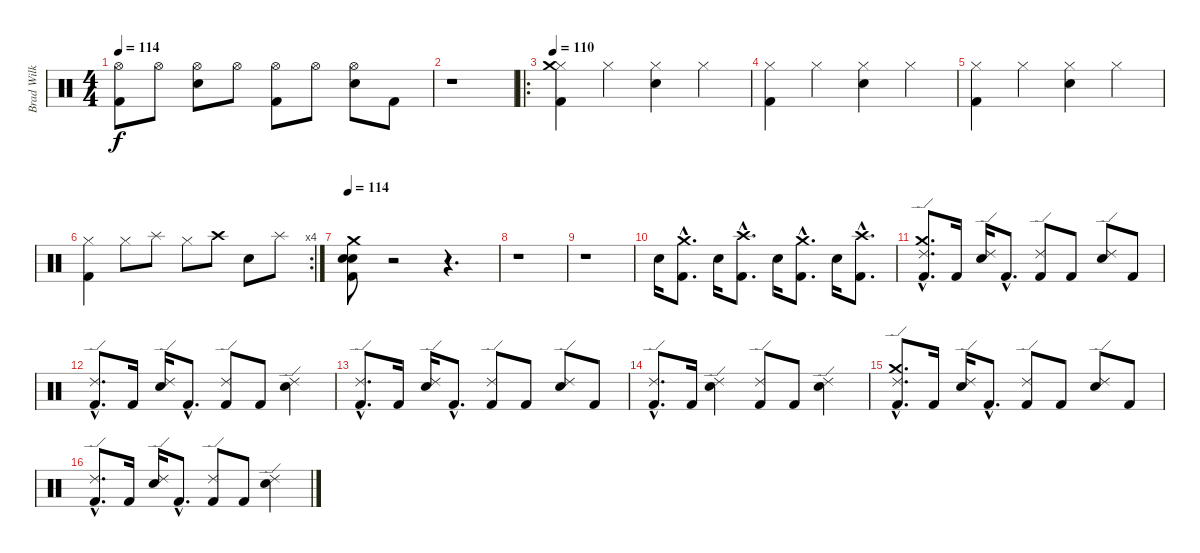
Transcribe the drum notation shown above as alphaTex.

\track ("Brad Wilk" "Brad Wilk") {instrument percussion}
\staff {score}
\articulation defaults
\ts (4 4)
\tempo 114
\clef neutral
\ks c
("Hi-Hat (open)" "Kick (hit) 2").8{dy f} "Hi-Hat (open)".8 ("Hi-Hat (open)" "Snare (hit) 2").8 "Hi-Hat (open)".8 ("Hi-Hat (open)" "Kick (hit) 2").8 "Hi-Hat (open)".8 ("Hi-Hat (open)" "Snare (hit) 2").8 "Kick (hit) 2".8 |
r.1 |
\ro
\tempo 110
("Hi-Hat (closed)" "Kick (hit) 2" "Crash medium (hit)").4 "Hi-Hat (closed)".4 ("Hi-Hat (closed)" "Snare (hit) 2").4 "Hi-Hat (closed)".4 |
("Hi-Hat (closed)" "Kick (hit) 2").4 "Hi-Hat (closed)".4 ("Hi-Hat (closed)" "Snare (hit) 2").4 "Hi-Hat (closed)".4 |
("Hi-Hat (closed)" "Kick (hit) 2").4 "Hi-Hat (closed)".4 ("Hi-Hat (closed)" "Snare (hit) 2").4 "Hi-Hat (closed)".4 |
\rc 4
("Hi-Hat (closed)" "Kick (hit) 2").4 "Hi-Hat (closed)".8 "Splash (hit)".8 "Hi-Hat (closed)".8 "Crash high (hit)".8 "Snare (hit) 2".8 "Splash (hit)".8 |
\tempo 114
("Crash medium (hit)" "Kick (hit) 2" "Snare (hit) 2" "Snare (hit) 2").8 r.2 r.4{d} |
r.1 |
r.1 |
"Snare (hit) 2".16 ("Kick (hit) 2"{hac} "Crash medium (hit)"{hac}).8{d} "Snare (hit) 2".16 ("Kick (hit) 2"{hac} "Crash high (hit)"{hac}).8{d} "Snare (hit) 2".16 ("Kick (hit) 2"{hac} "Crash medium (hit)"{hac}).8{d} "Snare (hit) 2".16 ("Kick (hit) 2"{hac} "Crash high (hit)"{hac}).8{d} |
("Ride (edge) 2"{hac} "Kick (hit) 2"{hac} "Crash medium (hit)"{hac}).8{d} "Kick (hit) 2".16 ("Ride (edge) 2" "Snare (hit) 2").16 "Kick (hit) 2"{hac}.8{d} ("Ride (edge) 2" "Kick (hit) 2").8 "Kick (hit) 2".8 ("Ride (edge) 2" "Snare (hit) 2").8 "Kick (hit) 2".8 |
("Ride (edge) 2"{hac} "Kick (hit) 2"{hac}).8{d} "Kick (hit) 2".16 ("Ride (edge) 2" "Snare (hit) 2").16 "Kick (hit) 2"{hac}.8{d} ("Ride (edge) 2" "Kick (hit) 2").8 "Kick (hit) 2".8 ("Ride (edge) 2" "Snare (hit) 2").4 |
("Ride (edge) 2"{hac} "Kick (hit) 2"{hac}).8{d} "Kick (hit) 2".16 ("Ride (edge) 2" "Snare (hit) 2").16 "Kick (hit) 2"{hac}.8{d} ("Ride (edge) 2" "Kick (hit) 2").8 "Kick (hit) 2".8 ("Ride (edge) 2" "Snare (hit) 2").8 "Kick (hit) 2".8 |
("Ride (edge) 2"{hac} "Kick (hit) 2"{hac}).8{d} "Kick (hit) 2".16 ("Ride (edge) 2" "Snare (hit) 2").4 ("Ride (edge) 2" "Kick (hit) 2").8 "Kick (hit) 2".8 ("Ride (edge) 2" "Snare (hit) 2").4 |
("Ride (edge) 2"{hac} "Kick (hit) 2"{hac} "Crash medium (hit)"{hac}).8{d} "Kick (hit) 2".16 ("Ride (edge) 2" "Snare (hit) 2").16 "Kick (hit) 2"{hac}.8{d} ("Ride (edge) 2" "Kick (hit) 2").8 "Kick (hit) 2".8 ("Ride (edge) 2" "Snare (hit) 2").8 "Kick (hit) 2".8 |
("Ride (edge) 2"{hac} "Kick (hit) 2"{hac}).8{d} "Kick (hit) 2".16 ("Ride (edge) 2" "Snare (hit) 2").16 "Kick (hit) 2"{hac}.8{d} ("Ride (edge) 2" "Kick (hit) 2").8 "Kick (hit) 2".8 ("Ride (edge) 2" "Snare (hit) 2").4
